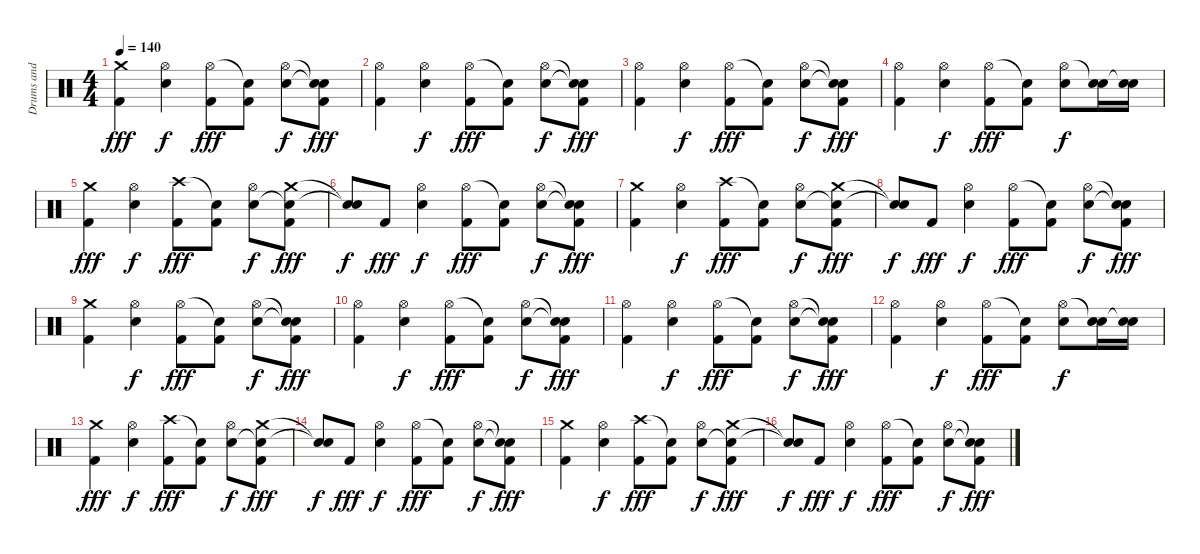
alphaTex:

\track ("Drums and Percussion" "Drums and ") {instrument percussion}
\staff {score}
\articulation defaults
\ts (4 4)
\tempo 140
\clef neutral
\ks c
("Crash medium (hit)" "Kick (hit) 2").4{dy fff} ("Hi-Hat (open)" "Snare (hit) 2").4{dy f} ("Hi-Hat (open)" "Kick (hit) 2").8{dy fff} ("Snare (hit)"{t} "Kick (hit) 2").8 ("Hi-Hat (open)" "Snare (hit) 2").8{dy f} ("Snare (hit)"{t} "Snare (hit)"{t} "Kick (hit) 2").8{dy fff} |
("Hi-Hat (open)" "Kick (hit) 2").4 ("Hi-Hat (open)" "Snare (hit) 2").4{dy f} ("Hi-Hat (open)" "Kick (hit) 2").8{dy fff} ("Snare (hit)"{t} "Kick (hit) 2").8 ("Hi-Hat (open)" "Snare (hit) 2").8{dy f} ("Snare (hit)"{t} "Snare (hit)"{t} "Kick (hit) 2").8{dy fff} |
("Hi-Hat (open)" "Kick (hit) 2").4 ("Hi-Hat (open)" "Snare (hit) 2").4{dy f} ("Hi-Hat (open)" "Kick (hit) 2").8{dy fff} ("Snare (hit)"{t} "Kick (hit) 2").8 ("Hi-Hat (open)" "Snare (hit) 2").8{dy f} ("Snare (hit)"{t} "Snare (hit)"{t} "Kick (hit) 2").8{dy fff} |
("Hi-Hat (open)" "Kick (hit) 2").4 ("Hi-Hat (open)" "Snare (hit) 2").4{dy f} ("Hi-Hat (open)" "Kick (hit) 2").8{dy fff} ("Snare (hit)"{t} "Kick (hit) 2").8 ("Hi-Hat (open)" "Snare (hit) 2").8{dy f} ("Snare (hit)"{t} "Snare (hit) 2").16 ("Snare (hit)"{t} "Snare (hit) 2").16 |
("Crash medium (hit)" "Kick (hit) 2").4{dy fff} ("Hi-Hat (open)" "Snare (hit) 2").4{dy f} ("Crash high (hit)" "Kick (hit) 2").8{dy fff} ("Snare (hit)"{t} "Kick (hit) 2").8 ("Hi-Hat (open)" "Snare (hit) 2").8{dy f} ("Crash medium (hit)" "Snare (hit)"{t} "Kick (hit) 2").8{dy fff} |
("Snare (hit)"{t} "Snare (hit)"{t}).8{dy f} "Kick (hit) 2".8{dy fff} ("Hi-Hat (open)" "Snare (hit) 2").4{dy f} ("Hi-Hat (open)" "Kick (hit) 2").8{dy fff} ("Snare (hit)"{t} "Kick (hit) 2").8 ("Hi-Hat (open)" "Snare (hit) 2").8{dy f} ("Snare (hit)"{t} "Snare (hit)"{t} "Kick (hit) 2").8{dy fff} |
("Crash medium (hit)" "Kick (hit) 2").4 ("Hi-Hat (open)" "Snare (hit) 2").4{dy f} ("Crash high (hit)" "Kick (hit) 2").8{dy fff} ("Snare (hit)"{t} "Kick (hit) 2").8 ("Hi-Hat (open)" "Snare (hit) 2").8{dy f} ("Crash medium (hit)" "Snare (hit)"{t} "Kick (hit) 2").8{dy fff} |
("Snare (hit)"{t} "Snare (hit)"{t}).8{dy f} "Kick (hit) 2".8{dy fff} ("Hi-Hat (open)" "Snare (hit) 2").4{dy f} ("Hi-Hat (open)" "Kick (hit) 2").8{dy fff} ("Snare (hit)"{t} "Kick (hit) 2").8 ("Hi-Hat (open)" "Snare (hit) 2").8{dy f} ("Snare (hit)"{t} "Snare (hit)"{t} "Kick (hit) 2").8{dy fff} |
("Crash medium (hit)" "Kick (hit) 2").4 ("Hi-Hat (open)" "Snare (hit) 2").4{dy f} ("Hi-Hat (open)" "Kick (hit) 2").8{dy fff} ("Snare (hit)"{t} "Kick (hit) 2").8 ("Hi-Hat (open)" "Snare (hit) 2").8{dy f} ("Snare (hit)"{t} "Snare (hit)"{t} "Kick (hit) 2").8{dy fff} |
("Hi-Hat (open)" "Kick (hit) 2").4 ("Hi-Hat (open)" "Snare (hit) 2").4{dy f} ("Hi-Hat (open)" "Kick (hit) 2").8{dy fff} ("Snare (hit)"{t} "Kick (hit) 2").8 ("Hi-Hat (open)" "Snare (hit) 2").8{dy f} ("Snare (hit)"{t} "Snare (hit)"{t} "Kick (hit) 2").8{dy fff} |
("Hi-Hat (open)" "Kick (hit) 2").4 ("Hi-Hat (open)" "Snare (hit) 2").4{dy f} ("Hi-Hat (open)" "Kick (hit) 2").8{dy fff} ("Snare (hit)"{t} "Kick (hit) 2").8 ("Hi-Hat (open)" "Snare (hit) 2").8{dy f} ("Snare (hit)"{t} "Snare (hit)"{t} "Kick (hit) 2").8{dy fff} |
("Hi-Hat (open)" "Kick (hit) 2").4 ("Hi-Hat (open)" "Snare (hit) 2").4{dy f} ("Hi-Hat (open)" "Kick (hit) 2").8{dy fff} ("Snare (hit)"{t} "Kick (hit) 2").8 ("Hi-Hat (open)" "Snare (hit) 2").8{dy f} ("Snare (hit)"{t} "Snare (hit) 2").16 ("Snare (hit)"{t} "Snare (hit) 2").16 |
("Crash medium (hit)" "Kick (hit) 2").4{dy fff} ("Hi-Hat (open)" "Snare (hit) 2").4{dy f} ("Crash high (hit)" "Kick (hit) 2").8{dy fff} ("Snare (hit)"{t} "Kick (hit) 2").8 ("Hi-Hat (open)" "Snare (hit) 2").8{dy f} ("Crash medium (hit)" "Snare (hit)"{t} "Kick (hit) 2").8{dy fff} |
("Snare (hit)"{t} "Snare (hit)"{t}).8{dy f} "Kick (hit) 2".8{dy fff} ("Hi-Hat (open)" "Snare (hit) 2").4{dy f} ("Hi-Hat (open)" "Kick (hit) 2").8{dy fff} ("Snare (hit)"{t} "Kick (hit) 2").8 ("Hi-Hat (open)" "Snare (hit) 2").8{dy f} ("Snare (hit)"{t} "Snare (hit)"{t} "Kick (hit) 2").8{dy fff} |
("Crash medium (hit)" "Kick (hit) 2").4 ("Hi-Hat (open)" "Snare (hit) 2").4{dy f} ("Crash high (hit)" "Kick (hit) 2").8{dy fff} ("Snare (hit)"{t} "Kick (hit) 2").8 ("Hi-Hat (open)" "Snare (hit) 2").8{dy f} ("Crash medium (hit)" "Snare (hit)"{t} "Kick (hit) 2").8{dy fff} |
("Snare (hit)"{t} "Snare (hit)"{t}).8{dy f} "Kick (hit) 2".8{dy fff} ("Hi-Hat (open)" "Snare (hit) 2").4{dy f} ("Hi-Hat (open)" "Kick (hit) 2").8{dy fff} ("Snare (hit)"{t} "Kick (hit) 2").8 ("Hi-Hat (open)" "Snare (hit) 2").8{dy f} ("Snare (hit)"{t} "Snare (hit)"{t} "Kick (hit) 2").8{dy fff}
